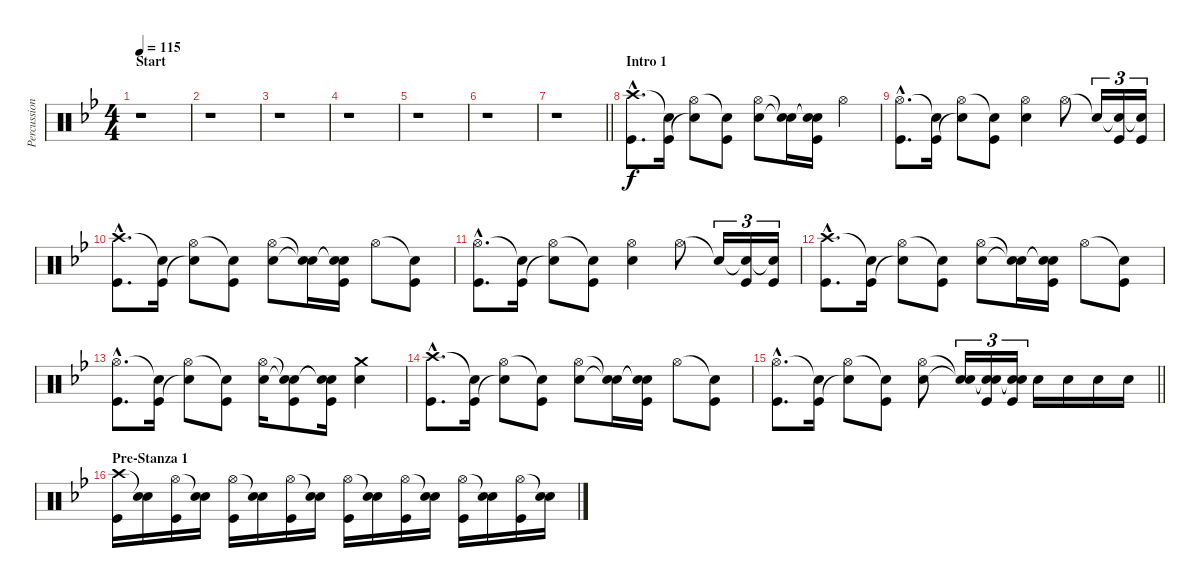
\track ("Percussion" "Percussion") {instrument percussion}
\staff {score}
\articulation defaults
\ts (4 4)
\section ("" "Start")
\tempo 115
\clef neutral
\ks bb
r.1{dy f} |
r.1 |
r.1 |
r.1 |
r.1 |
r.1 |
\barLineRight lightlight
r.1 |
\section ("" "Intro 1")
("Crash high (hit)"{hac} "Kick (hit)"{hac}).8{d} ("Snare (hit)"{t} "Kick (hit)").16 ("Hi-Hat (open)" "Snare (hit)"{t}).8 ("Snare (hit)"{t} "Kick (hit)").8 ("Hi-Hat (open)" "Electric Snare (hit)").8 ("Snare (hit)"{t} "Snare (hit)"{t}).16 ("Snare (hit)"{t} "Snare (hit)"{t} "Kick (hit)").16 "Hi-Hat (open)".4 |
("Hi-Hat (open)"{hac} "Kick (hit)"{hac}).8{d} ("Snare (hit)"{t} "Kick (hit)").16 ("Hi-Hat (open)" "Snare (hit)"{t}).8 ("Snare (hit)"{t} "Kick (hit)").8 ("Hi-Hat (open)" "Electric Snare (hit)").4 "Hi-Hat (open)".8 "Snare (hit)"{t}.16{tu (3 2)} ("Snare (hit)"{t} "Kick (hit)").16{tu (3 2)} ("Snare (hit)"{t} "Kick (hit)").16{tu (3 2)} |
("Crash high (hit)"{hac} "Kick (hit)"{hac}).8{d} ("Snare (hit)"{t} "Kick (hit)").16 ("Hi-Hat (open)" "Snare (hit)"{t}).8 ("Snare (hit)"{t} "Kick (hit)").8 ("Hi-Hat (open)" "Electric Snare (hit)").8 ("Snare (hit)"{t} "Snare (hit)"{t}).16 ("Snare (hit)"{t} "Snare (hit)"{t} "Kick (hit)").16 "Hi-Hat (open)".8 ("Snare (hit)"{t} "Kick (hit)").8 |
("Hi-Hat (open)"{hac} "Kick (hit)"{hac}).8{d} ("Snare (hit)"{t} "Kick (hit)").16 ("Hi-Hat (open)" "Snare (hit)"{t}).8 ("Snare (hit)"{t} "Kick (hit)").8 ("Hi-Hat (open)" "Electric Snare (hit)").4 "Hi-Hat (open)".8 "Snare (hit)"{t}.16{tu (3 2)} ("Snare (hit)"{t} "Kick (hit)").16{tu (3 2)} ("Snare (hit)"{t} "Kick (hit)").16{tu (3 2)} |
("Crash high (hit)"{hac} "Kick (hit)"{hac}).8{d} ("Snare (hit)"{t} "Kick (hit)").16 ("Hi-Hat (open)" "Snare (hit)"{t}).8 ("Snare (hit)"{t} "Kick (hit)").8 ("Hi-Hat (open)" "Electric Snare (hit)").8 ("Snare (hit)"{t} "Snare (hit)"{t}).16 ("Snare (hit)"{t} "Snare (hit)"{t} "Kick (hit)").16 "Hi-Hat (open)".8 ("Snare (hit)"{t} "Kick (hit)").8 |
("Hi-Hat (open)"{hac} "Kick (hit)"{hac}).8{d} ("Snare (hit)"{t} "Kick (hit)").16 ("Hi-Hat (open)" "Snare (hit)"{t}).8 ("Snare (hit)"{t} "Kick (hit)").8 ("Hi-Hat (open)" "Electric Snare (hit)").16 ("Snare (hit)"{t} "Snare (hit)"{t} "Kick (hit)").8 ("Snare (hit)"{t} "Snare (hit)"{t} "Kick (hit)").16 ("Crash medium (hit)" "Electric Snare (hit)").4 |
("Crash high (hit)"{hac} "Kick (hit)"{hac}).8{d} ("Snare (hit)"{t} "Kick (hit)").16 ("Hi-Hat (open)" "Snare (hit)"{t}).8 ("Snare (hit)"{t} "Kick (hit)").8 ("Hi-Hat (open)" "Electric Snare (hit)").8 ("Snare (hit)"{t} "Snare (hit)"{t}).16 ("Snare (hit)"{t} "Snare (hit)"{t} "Kick (hit)").16 "Hi-Hat (open)".8 ("Snare (hit)"{t} "Kick (hit)").8 |
\barLineRight lightlight
("Hi-Hat (open)"{hac} "Kick (hit)"{hac}).8{d} ("Snare (hit)"{t} "Kick (hit)").16 ("Hi-Hat (open)" "Snare (hit)"{t}).8 ("Snare (hit)"{t} "Kick (hit)").8 ("Hi-Hat (open)" "Electric Snare (hit)").8 ("Snare (hit)"{t} "Snare (hit)"{t}).16{tu (3 2)} ("Snare (hit)"{t} "Snare (hit)"{t} "Kick (hit)").16{tu (3 2)} ("Snare (hit)"{t} "Snare (hit)"{t} "Kick (hit)").16{tu (3 2)} "Electric Snare (hit)".16 "Electric Snare (hit)".16 "Electric Snare (hit)".16 "Electric Snare (hit)".16 |
\section ("" "Pre-Stanza 1")
("Crash high (hit)" "Kick (hit)").16 ("Snare (hit)"{t} "Electric Snare (hit)").16 ("Hi-Hat (open)" "Kick (hit)").16 ("Snare (hit)"{t} "Electric Snare (hit)").16 ("Hi-Hat (open)" "Kick (hit)").16 ("Snare (hit)"{t} "Electric Snare (hit)").16 ("Hi-Hat (open)" "Kick (hit)").16 ("Snare (hit)"{t} "Electric Snare (hit)").16 ("Hi-Hat (open)" "Kick (hit)").16 ("Snare (hit)"{t} "Electric Snare (hit)").16 ("Hi-Hat (open)" "Kick (hit)").16 ("Snare (hit)"{t} "Electric Snare (hit)").16 ("Hi-Hat (open)" "Kick (hit)").16 ("Snare (hit)"{t} "Electric Snare (hit)").16 ("Hi-Hat (open)" "Kick (hit)").16 ("Snare (hit)"{t} "Electric Snare (hit)").16
